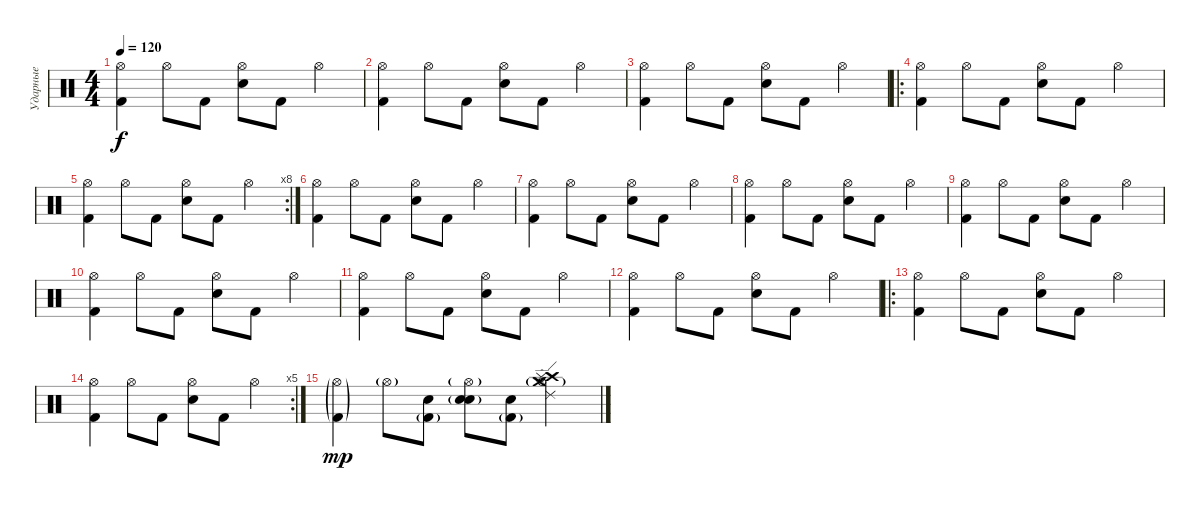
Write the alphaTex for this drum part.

\track ("Ударные" "Ударные") {instrument percussion}
\staff {score}
\articulation defaults
\ts (4 4)
\tempo 120
\clef neutral
\ks c
("Kick (hit) 2" "Hi-Hat (open)").4{dy f} "Hi-Hat (open)".8 "Kick (hit) 2".8 ("Hi-Hat (open)" "Snare (hit) 2").8 "Kick (hit) 2".8 "Hi-Hat (open)".4 |
("Kick (hit) 2" "Hi-Hat (open)").4 "Hi-Hat (open)".8 "Kick (hit) 2".8 ("Hi-Hat (open)" "Snare (hit) 2").8 "Kick (hit) 2".8 "Hi-Hat (open)".4 |
("Kick (hit) 2" "Hi-Hat (open)").4 "Hi-Hat (open)".8 "Kick (hit) 2".8 ("Hi-Hat (open)" "Snare (hit) 2").8 "Kick (hit) 2".8 "Hi-Hat (open)".4 |
\ro
("Kick (hit) 2" "Hi-Hat (open)").4 "Hi-Hat (open)".8 "Kick (hit) 2".8 ("Hi-Hat (open)" "Snare (hit) 2").8 "Kick (hit) 2".8 "Hi-Hat (open)".4 |
\rc 8
("Kick (hit) 2" "Hi-Hat (open)").4 "Hi-Hat (open)".8 "Kick (hit) 2".8 ("Hi-Hat (open)" "Snare (hit) 2").8 "Kick (hit) 2".8 "Hi-Hat (open)".4 |
("Kick (hit) 2" "Hi-Hat (open)").4 "Hi-Hat (open)".8 "Kick (hit) 2".8 ("Hi-Hat (open)" "Snare (hit) 2").8 "Kick (hit) 2".8 "Hi-Hat (open)".4 |
("Kick (hit) 2" "Hi-Hat (open)").4 "Hi-Hat (open)".8 "Kick (hit) 2".8 ("Hi-Hat (open)" "Snare (hit) 2").8 "Kick (hit) 2".8 "Hi-Hat (open)".4 |
("Kick (hit) 2" "Hi-Hat (open)").4 "Hi-Hat (open)".8 "Kick (hit) 2".8 ("Hi-Hat (open)" "Snare (hit) 2").8 "Kick (hit) 2".8 "Hi-Hat (open)".4 |
("Kick (hit) 2" "Hi-Hat (open)").4 "Hi-Hat (open)".8 "Kick (hit) 2".8 ("Hi-Hat (open)" "Snare (hit) 2").8 "Kick (hit) 2".8 "Hi-Hat (open)".4 |
("Kick (hit) 2" "Hi-Hat (open)").4 "Hi-Hat (open)".8 "Kick (hit) 2".8 ("Hi-Hat (open)" "Snare (hit) 2").8 "Kick (hit) 2".8 "Hi-Hat (open)".4 |
("Kick (hit) 2" "Hi-Hat (open)").4 "Hi-Hat (open)".8 "Kick (hit) 2".8 ("Hi-Hat (open)" "Snare (hit) 2").8 "Kick (hit) 2".8 "Hi-Hat (open)".4 |
("Kick (hit) 2" "Hi-Hat (open)").4 "Hi-Hat (open)".8 "Kick (hit) 2".8 ("Hi-Hat (open)" "Snare (hit) 2").8 "Kick (hit) 2".8 "Hi-Hat (open)".4 |
\ro
("Kick (hit) 2" "Hi-Hat (open)").4 "Hi-Hat (open)".8 "Kick (hit) 2".8 ("Hi-Hat (open)" "Snare (hit) 2").8 "Kick (hit) 2".8 "Hi-Hat (open)".4 |
\rc 5
("Kick (hit) 2" "Hi-Hat (open)").4 "Hi-Hat (open)".8 "Kick (hit) 2".8 ("Hi-Hat (open)" "Snare (hit) 2").8 "Kick (hit) 2".8 "Hi-Hat (open)".4 |
("Kick (hit) 2"{g} "Hi-Hat (open)"{g}).4{dy mp} "Hi-Hat (open)"{g}.8 ("Kick (hit) 2"{g} "Snare (hit) 2").8 ("Snare (hit) 2" "Hi-Hat (open)"{g} "Snare (hit) 2"{g}).8 ("Kick (hit) 2"{g} "Snare (hit) 2").8 ("Crash high (hit)" "Crash medium (hit)" "Ride (edge) 2" "Hi-Hat (open)"{g} "Splash (hit)").4
